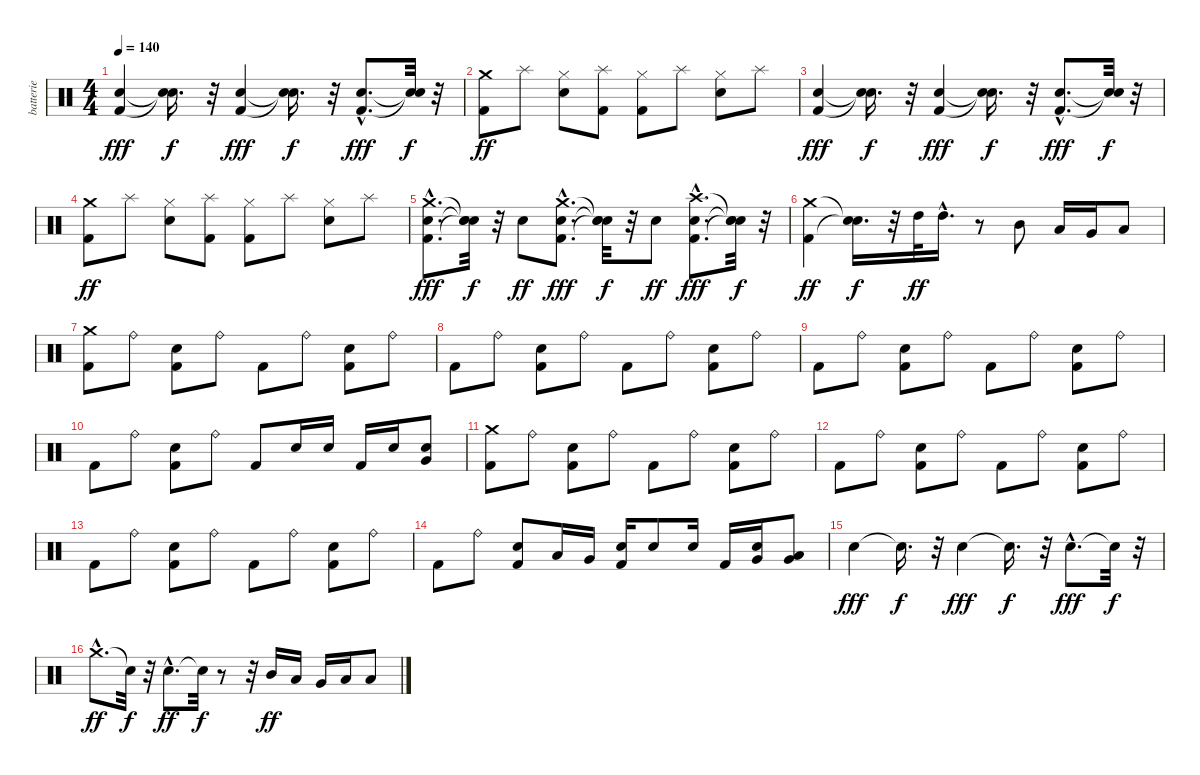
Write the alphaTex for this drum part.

\track ("batterie" "batterie") {instrument percussion}
\staff {score}
\articulation defaults
\ts (4 4)
\tempo 140
\clef neutral
\ks c
("Kick (hit) 2" "Electric Snare (hit)").4{dy fff} ("Snare (hit)"{t} "Snare (hit)"{t}).16{d dy f} r.32 ("Kick (hit) 2" "Electric Snare (hit)").4{dy fff} ("Snare (hit)"{t} "Snare (hit)"{t}).16{d dy f} r.32 ("Kick (hit) 2"{hac} "Electric Snare (hit)"{hac}).8{d dy fff} ("Snare (hit)"{t} "Snare (hit)"{t}).32{dy f} r.32 |
("Kick (hit) 2" "Crash medium (hit)").8{dy ff} "Splash (hit)".8 ("Electric Snare (hit)" "Hi-Hat (closed)").8 ("Kick (hit) 2" "Splash (hit)").8 ("Kick (hit) 2" "Hi-Hat (closed)").8 "Splash (hit)".8 ("Electric Snare (hit)" "Hi-Hat (closed)").8 "Splash (hit)".8 |
("Kick (hit) 2" "Electric Snare (hit)").4{dy fff} ("Snare (hit)"{t} "Snare (hit)"{t}).16{d dy f} r.32 ("Kick (hit) 2" "Electric Snare (hit)").4{dy fff} ("Snare (hit)"{t} "Snare (hit)"{t}).16{d dy f} r.32 ("Kick (hit) 2"{hac} "Electric Snare (hit)"{hac}).8{d dy fff} ("Snare (hit)"{t} "Snare (hit)"{t}).32{dy f} r.32 |
("Kick (hit) 2" "Crash medium (hit)").8{dy ff} "Splash (hit)".8 ("Electric Snare (hit)" "Hi-Hat (closed)").8 ("Kick (hit) 2" "Splash (hit)").8 ("Kick (hit) 2" "Hi-Hat (closed)").8 "Splash (hit)".8 ("Electric Snare (hit)" "Hi-Hat (closed)").8 "Splash (hit)".8 |
("Kick (hit) 2"{hac} "Electric Snare (hit)"{hac} "Crash medium (hit)"{hac}).8{d dy fff} ("Snare (hit)"{t} "Snare (hit)"{t} "Snare (hit)"{t}).32{dy f} r.32 "Electric Snare (hit)".8{dy ff} ("Kick (hit) 2"{hac} "Electric Snare (hit)"{hac} "Crash medium (hit)"{hac}).8{d dy fff} ("Snare (hit)"{t} "Snare (hit)"{t} "Snare (hit)"{t}).32{dy f} r.32 "Electric Snare (hit)".8{dy ff} ("Kick (hit) 2"{hac} "Electric Snare (hit)"{hac} "Crash high (hit)"{hac}).8{d dy fff} ("Snare (hit)"{t} "Snare (hit)"{t} "Snare (hit)"{t}).32{dy f} r.32 |
("Kick (hit) 2" "Crash medium (hit)").4{dy ff} ("Snare (hit)"{t} "Snare (hit)"{t}).16{d dy f} r.32 "High Tom (hit)".32{dy ff} "High Tom (hit)"{hac}.16{d} r.8 "Mid Tom (hit)".8 "Low Tom (hit)".16 "Very Low Tom (hit)".16 "Low Floor Tom (hit)".8 |
("Kick (hit) 2" "Crash medium (hit)").8 "Ride (bell)".8 ("Kick (hit) 2" "Electric Snare (hit)").8 "Ride (bell)".8 "Kick (hit) 2".8 "Ride (bell)".8 ("Kick (hit) 2" "Electric Snare (hit)").8 "Ride (bell)".8 |
"Kick (hit) 2".8 "Ride (bell)".8 ("Kick (hit) 2" "Electric Snare (hit)").8 "Ride (bell)".8 "Kick (hit) 2".8 "Ride (bell)".8 ("Kick (hit) 2" "Electric Snare (hit)").8 "Ride (bell)".8 |
"Kick (hit) 2".8 "Ride (bell)".8 ("Kick (hit) 2" "Electric Snare (hit)").8 "Ride (bell)".8 "Kick (hit) 2".8 "Ride (bell)".8 ("Kick (hit) 2" "Electric Snare (hit)").8 "Ride (bell)".8 |
"Kick (hit) 2".8 "Ride (bell)".8 ("Kick (hit) 2" "Electric Snare (hit)").8 "Ride (bell)".8 "Kick (hit) 2".8 "Electric Snare (hit)".16 "Electric Snare (hit)".16 "Kick (hit) 2".16 "Electric Snare (hit)".16 ("Electric Snare (hit)" "Very Low Tom (hit)").8 |
("Kick (hit) 2" "Crash medium (hit)").8 "Ride (bell)".8 ("Kick (hit) 2" "Electric Snare (hit)").8 "Ride (bell)".8 "Kick (hit) 2".8 "Ride (bell)".8 ("Kick (hit) 2" "Electric Snare (hit)").8 "Ride (bell)".8 |
"Kick (hit) 2".8 "Ride (bell)".8 ("Kick (hit) 2" "Electric Snare (hit)").8 "Ride (bell)".8 "Kick (hit) 2".8 "Ride (bell)".8 ("Kick (hit) 2" "Electric Snare (hit)").8 "Ride (bell)".8 |
"Kick (hit) 2".8 "Ride (bell)".8 ("Kick (hit) 2" "Electric Snare (hit)").8 "Ride (bell)".8 "Kick (hit) 2".8 "Ride (bell)".8 ("Kick (hit) 2" "Electric Snare (hit)").8 "Ride (bell)".8 |
"Kick (hit) 2".8 "Ride (bell)".8 ("Kick (hit) 2" "Electric Snare (hit)").8 "Low Tom (hit)".16 "Very Low Tom (hit)".16 ("Kick (hit) 2" "Electric Snare (hit)").16 "Electric Snare (hit)".8 "Electric Snare (hit)".16 "Kick (hit) 2".16 ("Electric Snare (hit)" "Very Low Tom (hit)").16 ("Low Floor Tom (hit)" "Very Low Tom (hit)").8 |
"Electric Snare (hit)".4{dy fff} "Snare (hit)"{t}.16{d dy f} r.32 "Electric Snare (hit)".4{dy fff} "Snare (hit)"{t}.16{d dy f} r.32 "Electric Snare (hit)"{hac}.8{d dy fff} "Snare (hit)"{t}.32{dy f} r.32 |
"Crash medium (hit)"{hac}.8{d dy ff} "Snare (hit)"{t}.32{dy f} r.32 "Electric Snare (hit)"{hac}.8{d dy ff} "Snare (hit)"{t}.32{dy f} r.8 r.32 "Mid Tom (hit)".16{dy ff} "Low Tom (hit)".16 "Very Low Tom (hit)".16 "Low Floor Tom (hit)".16 "Low Floor Tom (hit)".8
